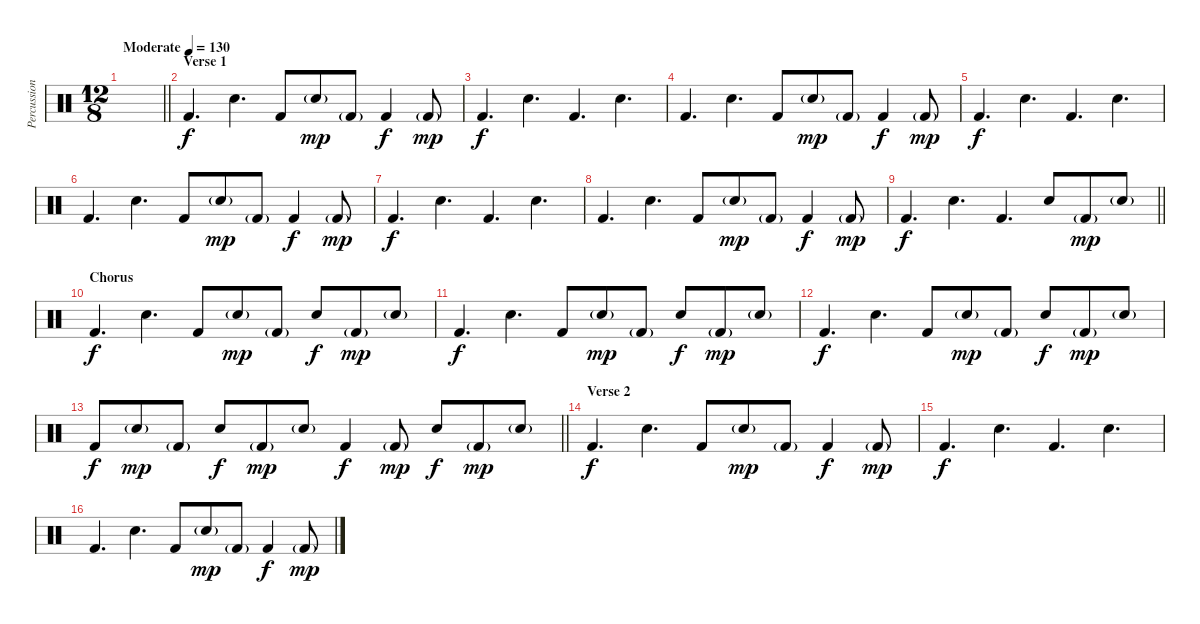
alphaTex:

\track ("Percussion" "Percussion") {instrument percussion}
\staff {score}
\articulation defaults
\ts (12 8)
\tempo (130 "Moderate")
\clef neutral
\barLineRight lightlight
\ks c
|
\section ("" "Verse 1")
"Kick (hit) 2".4{d} "Snare (hit) 2".4{d} "Kick (hit) 2".8 "Snare (hit) 2"{g}.8{dy mp} "Kick (hit) 2"{g}.8 "Kick (hit) 2".4{dy f} "Kick (hit) 2"{g}.8{dy mp} |
"Kick (hit) 2".4{d dy f} "Snare (hit) 2".4{d} "Kick (hit) 2".4{d} "Snare (hit) 2".4{d} |
"Kick (hit) 2".4{d} "Snare (hit) 2".4{d} "Kick (hit) 2".8 "Snare (hit) 2"{g}.8{dy mp} "Kick (hit) 2"{g}.8 "Kick (hit) 2".4{dy f} "Kick (hit) 2"{g}.8{dy mp} |
"Kick (hit) 2".4{d dy f} "Snare (hit) 2".4{d} "Kick (hit) 2".4{d} "Snare (hit) 2".4{d} |
"Kick (hit) 2".4{d} "Snare (hit) 2".4{d} "Kick (hit) 2".8 "Snare (hit) 2"{g}.8{dy mp} "Kick (hit) 2"{g}.8 "Kick (hit) 2".4{dy f} "Kick (hit) 2"{g}.8{dy mp} |
"Kick (hit) 2".4{d dy f} "Snare (hit) 2".4{d} "Kick (hit) 2".4{d} "Snare (hit) 2".4{d} |
"Kick (hit) 2".4{d} "Snare (hit) 2".4{d} "Kick (hit) 2".8 "Snare (hit) 2"{g}.8{dy mp} "Kick (hit) 2"{g}.8 "Kick (hit) 2".4{dy f} "Kick (hit) 2"{g}.8{dy mp} |
\barLineRight lightlight "Kick (hit) 2".4{d dy f} "Snare (hit) 2".4{d} "Kick (hit) 2".4{d} "Snare (hit) 2".8 "Kick (hit) 2"{g}.8{dy mp} "Snare (hit) 2"{g}.8
|
\section ("" "Chorus")
"Kick (hit) 2".4{d dy f} "Snare (hit) 2".4{d} "Kick (hit) 2".8 "Snare (hit) 2"{g}.8{dy mp} "Kick (hit) 2"{g}.8 "Snare (hit) 2".8{dy f} "Kick (hit) 2"{g}.8{dy mp} "Snare (hit) 2"{g}.8 |
"Kick (hit) 2".4{d dy f} "Snare (hit) 2".4{d} "Kick (hit) 2".8 "Snare (hit) 2"{g}.8{dy mp} "Kick (hit) 2"{g}.8 "Snare (hit) 2".8{dy f} "Kick (hit) 2"{g}.8{dy mp} "Snare (hit) 2"{g}.8 |
"Kick (hit) 2".4{d dy f} "Snare (hit) 2".4{d} "Kick (hit) 2".8 "Snare (hit) 2"{g}.8{dy mp} "Kick (hit) 2"{g}.8 "Snare (hit) 2".8{dy f} "Kick (hit) 2"{g}.8{dy mp} "Snare (hit) 2"{g}.8 |
\barLineRight lightlight "Kick (hit) 2".8{dy f} "Snare (hit) 2"{g}.8{dy mp} "Kick (hit) 2"{g}.8 "Snare (hit) 2".8{dy f} "Kick (hit) 2"{g}.8{dy mp} "Snare (hit) 2"{g}.8 "Kick (hit) 2".4{dy f} "Kick (hit) 2"{g}.8{dy mp} "Snare (hit) 2".8{dy f} "Kick (hit) 2"{g}.8{dy mp} "Snare (hit) 2"{g}.8
|
\section ("" "Verse 2")
"Kick (hit) 2".4{d dy f} "Snare (hit) 2".4{d} "Kick (hit) 2".8 "Snare (hit) 2"{g}.8{dy mp} "Kick (hit) 2"{g}.8 "Kick (hit) 2".4{dy f} "Kick (hit) 2"{g}.8{dy mp} |
"Kick (hit) 2".4{d dy f} "Snare (hit) 2".4{d} "Kick (hit) 2".4{d} "Snare (hit) 2".4{d} |
"Kick (hit) 2".4{d} "Snare (hit) 2".4{d} "Kick (hit) 2".8 "Snare (hit) 2"{g}.8{dy mp} "Kick (hit) 2"{g}.8 "Kick (hit) 2".4{dy f} "Kick (hit) 2"{g}.8{dy mp}
